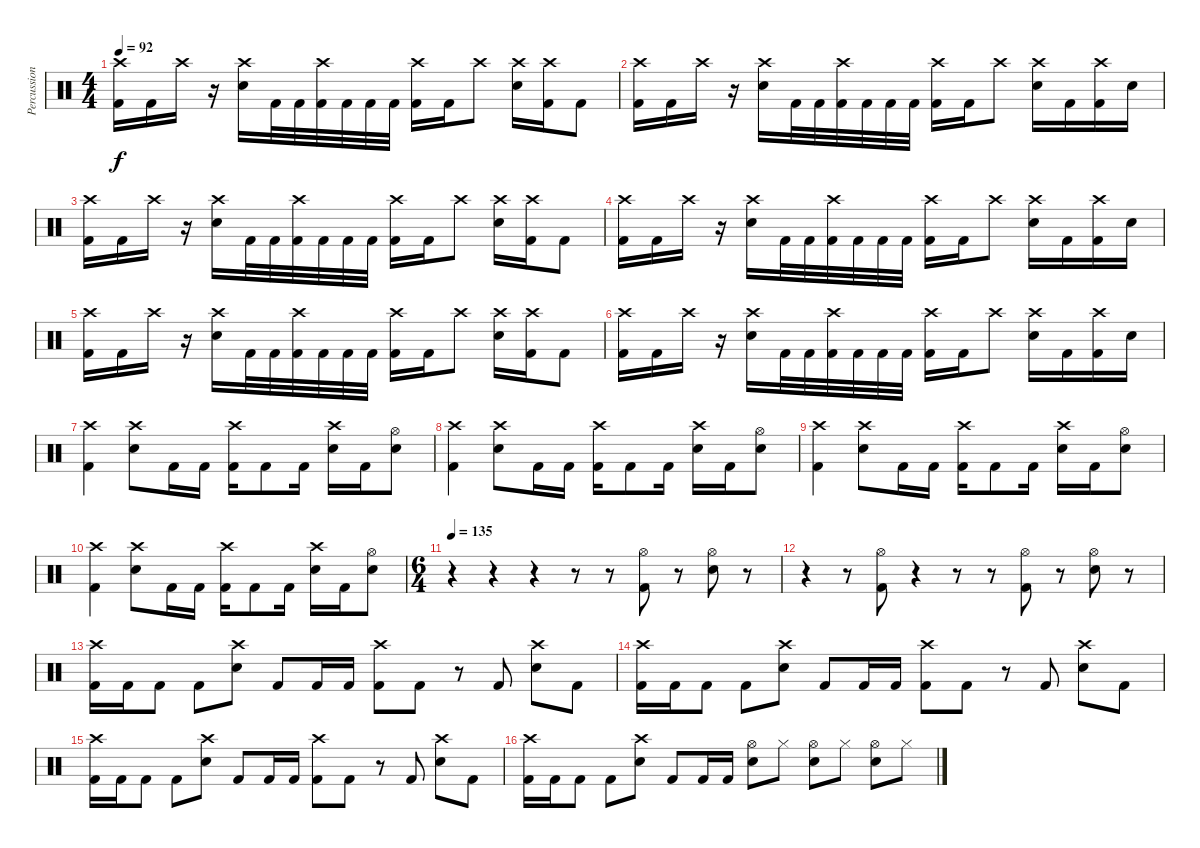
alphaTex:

\track ("Percussion" "Percussion") {instrument percussion}
\staff {score}
\articulation defaults
\ts (4 4)
\tempo 92
\clef neutral
\ks c
("Crash high (hit)" "Kick (hit) 2").16{dy f} "Kick (hit) 2".16 "Crash high (hit)".16 r.16 ("Crash high (hit)" "Electric Snare (hit)").16 "Kick (hit) 2".32 "Kick (hit) 2".32 ("Crash high (hit)" "Kick (hit) 2").32 "Kick (hit) 2".32 "Kick (hit) 2".32 "Kick (hit) 2".32 ("Crash high (hit)" "Kick (hit) 2").16 "Kick (hit) 2".16 "Crash high (hit)".8 ("Crash high (hit)" "Electric Snare (hit)").16 ("Crash high (hit)" "Kick (hit) 2").16 "Kick (hit) 2".8 |
("Crash high (hit)" "Kick (hit) 2").16 "Kick (hit) 2".16 "Crash high (hit)".16 r.16 ("Crash high (hit)" "Electric Snare (hit)").16 "Kick (hit) 2".32 "Kick (hit) 2".32 ("Crash high (hit)" "Kick (hit) 2").32 "Kick (hit) 2".32 "Kick (hit) 2".32 "Kick (hit) 2".32 ("Crash high (hit)" "Kick (hit) 2").16 "Kick (hit) 2".16 "Crash high (hit)".8 ("Crash high (hit)" "Electric Snare (hit)").16 "Kick (hit) 2".16 ("Crash high (hit)" "Kick (hit) 2").16 "Electric Snare (hit)".16 |
("Crash high (hit)" "Kick (hit) 2").16 "Kick (hit) 2".16 "Crash high (hit)".16 r.16 ("Crash high (hit)" "Electric Snare (hit)").16 "Kick (hit) 2".32 "Kick (hit) 2".32 ("Crash high (hit)" "Kick (hit) 2").32 "Kick (hit) 2".32 "Kick (hit) 2".32 "Kick (hit) 2".32 ("Crash high (hit)" "Kick (hit) 2").16 "Kick (hit) 2".16 "Crash high (hit)".8 ("Crash high (hit)" "Electric Snare (hit)").16 ("Crash high (hit)" "Kick (hit) 2").16 "Kick (hit) 2".8 |
("Crash high (hit)" "Kick (hit) 2").16 "Kick (hit) 2".16 "Crash high (hit)".16 r.16 ("Crash high (hit)" "Electric Snare (hit)").16 "Kick (hit) 2".32 "Kick (hit) 2".32 ("Crash high (hit)" "Kick (hit) 2").32 "Kick (hit) 2".32 "Kick (hit) 2".32 "Kick (hit) 2".32 ("Crash high (hit)" "Kick (hit) 2").16 "Kick (hit) 2".16 "Crash high (hit)".8 ("Crash high (hit)" "Electric Snare (hit)").16 "Kick (hit) 2".16 ("Crash high (hit)" "Kick (hit) 2").16 "Electric Snare (hit)".16 |
("Crash high (hit)" "Kick (hit) 2").16 "Kick (hit) 2".16 "Crash high (hit)".16 r.16 ("Crash high (hit)" "Electric Snare (hit)").16 "Kick (hit) 2".32 "Kick (hit) 2".32 ("Crash high (hit)" "Kick (hit) 2").32 "Kick (hit) 2".32 "Kick (hit) 2".32 "Kick (hit) 2".32 ("Crash high (hit)" "Kick (hit) 2").16 "Kick (hit) 2".16 "Crash high (hit)".8 ("Crash high (hit)" "Electric Snare (hit)").16 ("Crash high (hit)" "Kick (hit) 2").16 "Kick (hit) 2".8 |
("Crash high (hit)" "Kick (hit) 2").16 "Kick (hit) 2".16 "Crash high (hit)".16 r.16 ("Crash high (hit)" "Electric Snare (hit)").16 "Kick (hit) 2".32 "Kick (hit) 2".32 ("Crash high (hit)" "Kick (hit) 2").32 "Kick (hit) 2".32 "Kick (hit) 2".32 "Kick (hit) 2".32 ("Crash high (hit)" "Kick (hit) 2").16 "Kick (hit) 2".16 "Crash high (hit)".8 ("Crash high (hit)" "Electric Snare (hit)").16 "Kick (hit) 2".16 ("Crash high (hit)" "Kick (hit) 2").16 "Electric Snare (hit)".16 |
("Crash high (hit)" "Kick (hit) 2").4 ("Crash high (hit)" "Electric Snare (hit)").8 "Kick (hit) 2".16 "Kick (hit) 2".16 ("Crash high (hit)" "Kick (hit) 2").16 "Kick (hit) 2".8 "Kick (hit) 2".16 ("Crash high (hit)" "Electric Snare (hit)").16 "Kick (hit) 2".16 ("Hi-Hat (open)" "Electric Snare (hit)").8 |
("Crash high (hit)" "Kick (hit) 2").4 ("Crash high (hit)" "Electric Snare (hit)").8 "Kick (hit) 2".16 "Kick (hit) 2".16 ("Crash high (hit)" "Kick (hit) 2").16 "Kick (hit) 2".8 "Kick (hit) 2".16 ("Crash high (hit)" "Electric Snare (hit)").16 "Kick (hit) 2".16 ("Hi-Hat (open)" "Electric Snare (hit)").8 |
("Crash high (hit)" "Kick (hit) 2").4 ("Crash high (hit)" "Electric Snare (hit)").8 "Kick (hit) 2".16 "Kick (hit) 2".16 ("Crash high (hit)" "Kick (hit) 2").16 "Kick (hit) 2".8 "Kick (hit) 2".16 ("Crash high (hit)" "Electric Snare (hit)").16 "Kick (hit) 2".16 ("Hi-Hat (open)" "Electric Snare (hit)").8 |
("Crash high (hit)" "Kick (hit) 2").4 ("Crash high (hit)" "Electric Snare (hit)").8 "Kick (hit) 2".16 "Kick (hit) 2".16 ("Crash high (hit)" "Kick (hit) 2").16 "Kick (hit) 2".8 "Kick (hit) 2".16 ("Crash high (hit)" "Electric Snare (hit)").16 "Kick (hit) 2".16 ("Hi-Hat (open)" "Electric Snare (hit)").8 |
\ts (6 4)
\tempo 135
r.4 r.4 r.4 r.8 r.8 ("Hi-Hat (open)" "Kick (hit) 2").8 r.8 ("Hi-Hat (open)" "Electric Snare (hit)").8 r.8 |
r.4 r.8 ("Hi-Hat (open)" "Kick (hit) 2").8 r.4 r.8 r.8 ("Hi-Hat (open)" "Kick (hit) 2").8 r.8 ("Hi-Hat (open)" "Electric Snare (hit)").8 r.8 |
("Crash high (hit)" "Kick (hit) 2").16 "Kick (hit) 2".16 "Kick (hit) 2".8 "Kick (hit) 2".8 ("Crash high (hit)" "Electric Snare (hit)").8 "Kick (hit) 2".8 "Kick (hit) 2".16 "Kick (hit) 2".16 ("Crash high (hit)" "Kick (hit) 2").8 "Kick (hit) 2".8 r.8 "Kick (hit) 2".8 ("Crash high (hit)" "Electric Snare (hit)").8 "Kick (hit) 2".8 |
("Crash high (hit)" "Kick (hit) 2").16 "Kick (hit) 2".16 "Kick (hit) 2".8 "Kick (hit) 2".8 ("Crash high (hit)" "Electric Snare (hit)").8 "Kick (hit) 2".8 "Kick (hit) 2".16 "Kick (hit) 2".16 ("Crash high (hit)" "Kick (hit) 2").8 "Kick (hit) 2".8 r.8 "Kick (hit) 2".8 ("Crash high (hit)" "Electric Snare (hit)").8 "Kick (hit) 2".8 |
("Crash high (hit)" "Kick (hit) 2").16 "Kick (hit) 2".16 "Kick (hit) 2".8 "Kick (hit) 2".8 ("Crash high (hit)" "Electric Snare (hit)").8 "Kick (hit) 2".8 "Kick (hit) 2".16 "Kick (hit) 2".16 ("Crash high (hit)" "Kick (hit) 2").8 "Kick (hit) 2".8 r.8 "Kick (hit) 2".8 ("Crash high (hit)" "Electric Snare (hit)").8 "Kick (hit) 2".8 |
("Crash high (hit)" "Kick (hit) 2").16 "Kick (hit) 2".16 "Kick (hit) 2".8 "Kick (hit) 2".8 ("Crash high (hit)" "Electric Snare (hit)").8 "Kick (hit) 2".8 "Kick (hit) 2".16 "Kick (hit) 2".16 ("Hi-Hat (open)" "Electric Snare (hit)").8 "Hi-Hat (closed)".8 ("Hi-Hat (open)" "Electric Snare (hit)").8 "Hi-Hat (closed)".8 ("Hi-Hat (open)" "Electric Snare (hit)").8 "Hi-Hat (closed)".8
